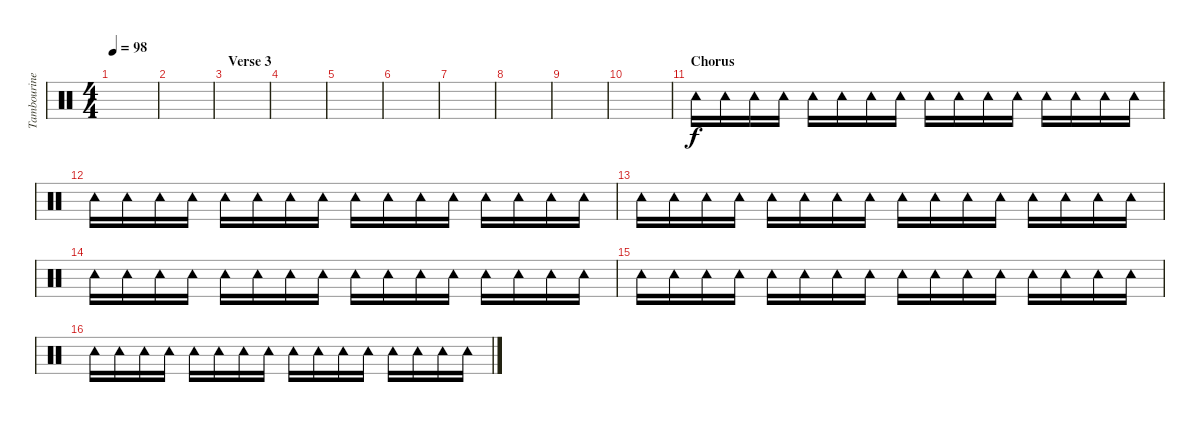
\track ("Tambourine" "Tambourine") {instrument percussion}
\staff {score}
\articulation defaults
\ts (4 4)
\tempo 98
\clef neutral
\ks c
|
|
\section ("" "Verse 3")
|
|
|
|
|
|
|
|
\section ("" "Chorus")
"Tambourine (hit)".16 "Tambourine (hit)".16 "Tambourine (hit)".16 "Tambourine (hit)".16 "Tambourine (hit)".16 "Tambourine (hit)".16 "Tambourine (hit)".16 "Tambourine (hit)".16 "Tambourine (hit)".16 "Tambourine (hit)".16 "Tambourine (hit)".16 "Tambourine (hit)".16 "Tambourine (hit)".16 "Tambourine (hit)".16 "Tambourine (hit)".16 "Tambourine (hit)".16 |
"Tambourine (hit)".16 "Tambourine (hit)".16 "Tambourine (hit)".16 "Tambourine (hit)".16 "Tambourine (hit)".16 "Tambourine (hit)".16 "Tambourine (hit)".16 "Tambourine (hit)".16 "Tambourine (hit)".16 "Tambourine (hit)".16 "Tambourine (hit)".16 "Tambourine (hit)".16 "Tambourine (hit)".16 "Tambourine (hit)".16 "Tambourine (hit)".16 "Tambourine (hit)".16 |
"Tambourine (hit)".16 "Tambourine (hit)".16 "Tambourine (hit)".16 "Tambourine (hit)".16 "Tambourine (hit)".16 "Tambourine (hit)".16 "Tambourine (hit)".16 "Tambourine (hit)".16 "Tambourine (hit)".16 "Tambourine (hit)".16 "Tambourine (hit)".16 "Tambourine (hit)".16 "Tambourine (hit)".16 "Tambourine (hit)".16 "Tambourine (hit)".16 "Tambourine (hit)".16 |
"Tambourine (hit)".16 "Tambourine (hit)".16 "Tambourine (hit)".16 "Tambourine (hit)".16 "Tambourine (hit)".16 "Tambourine (hit)".16 "Tambourine (hit)".16 "Tambourine (hit)".16 "Tambourine (hit)".16 "Tambourine (hit)".16 "Tambourine (hit)".16 "Tambourine (hit)".16 "Tambourine (hit)".16 "Tambourine (hit)".16 "Tambourine (hit)".16 "Tambourine (hit)".16 |
"Tambourine (hit)".16 "Tambourine (hit)".16 "Tambourine (hit)".16 "Tambourine (hit)".16 "Tambourine (hit)".16 "Tambourine (hit)".16 "Tambourine (hit)".16 "Tambourine (hit)".16 "Tambourine (hit)".16 "Tambourine (hit)".16 "Tambourine (hit)".16 "Tambourine (hit)".16 "Tambourine (hit)".16 "Tambourine (hit)".16 "Tambourine (hit)".16 "Tambourine (hit)".16 |
"Tambourine (hit)".16 "Tambourine (hit)".16 "Tambourine (hit)".16 "Tambourine (hit)".16 "Tambourine (hit)".16 "Tambourine (hit)".16 "Tambourine (hit)".16 "Tambourine (hit)".16 "Tambourine (hit)".16 "Tambourine (hit)".16 "Tambourine (hit)".16 "Tambourine (hit)".16 "Tambourine (hit)".16 "Tambourine (hit)".16 "Tambourine (hit)".16 "Tambourine (hit)".16
